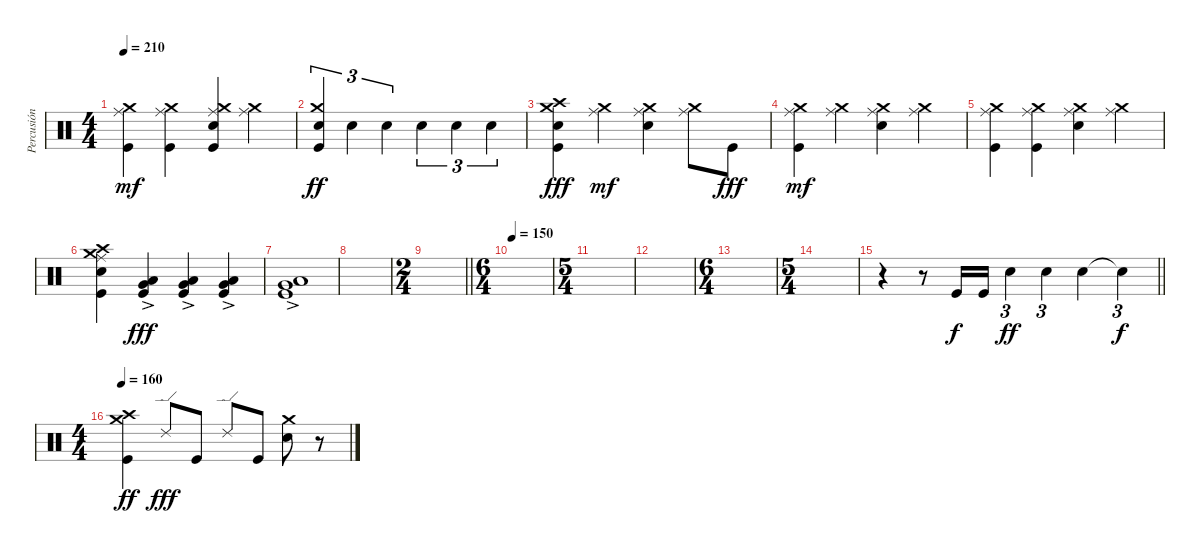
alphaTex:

\track ("Percusión" "Percusión") {instrument percussion}
\staff {score}
\articulation defaults
\ts (4 4)
\tempo 210
\clef neutral
\ks c
("Kick (hit)" "Ride (middle)" "Crash medium (hit)").4{dy mf} ("Kick (hit)" "Ride (middle)" "Crash medium (hit)").4 ("Kick (hit)" "Electric Snare (hit)" "Ride (middle)" "Crash medium (hit)").4 ("Ride (middle)" "Crash medium (hit)").4 |
("Kick (hit)" "Electric Snare (hit)" "Crash medium (hit)").4{tu (3 2) dy ff} "Electric Snare (hit)".4{tu (3 2)} "Electric Snare (hit)".4{tu (3 2)} "Electric Snare (hit)".4{tu (3 2)} "Electric Snare (hit)".4{tu (3 2)} "Electric Snare (hit)".4{tu (3 2)} |
("Kick (hit)" "Electric Snare (hit)" "Crash medium (hit)" "Crash high (hit)").4{dy fff} ("Ride (middle)" "Crash medium (hit)").4{dy mf} ("Electric Snare (hit)" "Ride (middle)" "Crash medium (hit)").4 ("Ride (middle)" "Crash medium (hit)").8 "Kick (hit)".8{dy fff} |
("Kick (hit)" "Ride (middle)" "Crash medium (hit)").4{dy mf} ("Ride (middle)" "Crash medium (hit)").4 ("Electric Snare (hit)" "Ride (middle)" "Crash medium (hit)").4 ("Ride (middle)" "Crash medium (hit)").4 |
("Kick (hit)" "Ride (middle)" "Crash medium (hit)").4 ("Kick (hit)" "Ride (middle)" "Crash medium (hit)").4 ("Electric Snare (hit)" "Ride (middle)" "Crash medium (hit)").4 ("Ride (middle)" "Crash medium (hit)").4 |
("Kick (hit)" "Electric Snare (hit)" "Ride (middle)" "Crash medium (hit)" "Crash high (hit)").4 ("Kick (hit)" "Very Low Tom (hit)"{ac} "Low Floor Tom (hit)"{ac}).4{dy fff} ("Kick (hit)" "Very Low Tom (hit)"{ac} "Low Tom (hit)"{ac}).4 ("Kick (hit)" "Very Low Tom (hit)"{ac} "Low Tom (hit)"{ac}).4 |
("Kick (hit)" "Very Low Tom (hit)"{ac} "Low Tom (hit)"{ac}).1 |
|
\ts (2 4)
\barLineRight lightlight
|
\ts (6 4)
\tempo 150
|
\ts (5 4)
|
|
\ts (6 4)
|
\ts (5 4)
|
\barLineRight lightlight
r.4 r.8 "Kick (hit)".16{dy f} "Kick (hit)".16 "Electric Snare (hit)".4{tu (3 2) dy ff} "Electric Snare (hit)".4{tu (3 2)} "Electric Snare (hit)".4 "Snare (hit)"{t}.4{tu (3 2) dy f} |
\ts (4 4)
\tempo 160
("Kick (hit)" "Crash high (hit)" "Crash medium (hit)").4{dy ff} "Ride (edge) 2".8{dy fff} "Kick (hit)".8 "Ride (edge) 2".8 "Kick (hit)".8 ("Electric Snare (hit)" "Crash medium (hit)").8 r.8
